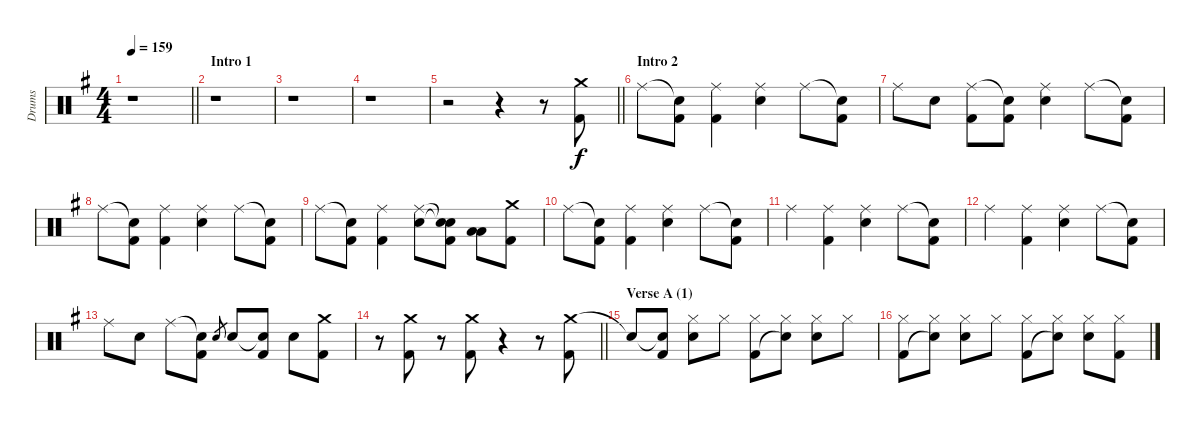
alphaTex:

\track ("Drums" "Drums") {instrument percussion}
\staff {score}
\articulation defaults
\ts (4 4)
\tempo 159
\clef neutral
\barLineRight lightlight
\ks g
r.1{dy f} |
\section ("" "Intro 1")
r.1 |
r.1 |
r.1 |
\barLineRight lightlight
r.2 r.4 r.8 ("Crash medium (hit)" "Kick (hit) 2").8 |
\section ("" "Intro 2")
"Ride (middle)".8 ("Snare (hit)"{t} "Kick (hit) 2").8 ("Ride (middle)" "Kick (hit) 2").4 ("Ride (middle)" "Electric Snare (hit)").4 "Ride (middle)".8 ("Snare (hit)"{t} "Kick (hit) 2").8 |
"Ride (middle)".8 "Electric Snare (hit)".8 ("Ride (middle)" "Kick (hit) 2").8 ("Snare (hit)"{t} "Kick (hit) 2").8 ("Ride (middle)" "Electric Snare (hit)").4 "Ride (middle)".8 ("Snare (hit)"{t} "Kick (hit) 2").8 |
"Ride (middle)".8 ("Snare (hit)"{t} "Kick (hit) 2").8 ("Ride (middle)" "Kick (hit) 2").4 ("Ride (middle)" "Electric Snare (hit)").4 "Ride (middle)".8 ("Snare (hit)"{t} "Kick (hit) 2").8 |
"Ride (middle)".8 ("Snare (hit)"{t} "Kick (hit) 2").8 ("Ride (middle)" "Kick (hit) 2").4 ("Ride (middle)" "Electric Snare (hit)").8 ("Snare (hit)"{t} "Snare (hit)"{t} "Kick (hit) 2").8 ("Low Tom (hit)" "Low Floor Tom (hit)").8 ("Crash medium (hit)" "Kick (hit) 2").8 |
"Ride (middle)".8 ("Snare (hit)"{t} "Kick (hit) 2").8 ("Ride (middle)" "Kick (hit) 2").4 ("Ride (middle)" "Electric Snare (hit)").4 "Ride (middle)".8 ("Snare (hit)"{t} "Kick (hit) 2").8 |
"Ride (middle)".4 ("Ride (middle)" "Kick (hit) 2").4 ("Ride (middle)" "Electric Snare (hit)").4 "Ride (middle)".8 ("Snare (hit)"{t} "Kick (hit) 2").8 |
"Ride (middle)".4 ("Ride (middle)" "Kick (hit) 2").4 ("Ride (middle)" "Electric Snare (hit)").4 "Ride (middle)".8 ("Snare (hit)"{t} "Kick (hit) 2").8 |
"Ride (middle)".8 "Electric Snare (hit)".8 "Ride (middle)".8 ("Snare (hit)"{t} "Kick (hit) 2").8 "Electric Snare (hit)".8{gr} "Electric Snare (hit)".8 ("Snare (hit)"{t} "Kick (hit) 2").8 "Electric Snare (hit)".8 ("Crash medium (hit)" "Kick (hit) 2").8 |
\barLineRight lightlight
r.8 ("Crash medium (hit)" "Kick (hit) 2").8 r.8 ("Crash medium (hit)" "Kick (hit) 2").8 r.4 r.8 ("Crash medium (hit)" "Kick (hit) 2").8 |
\section ("" "Verse A (1)")
"Snare (hit)"{t}.8 ("Snare (hit)"{t} "Kick (hit) 2").8 ("Hi-Hat (closed)" "Electric Snare (hit)").8 "Hi-Hat (closed)".8 ("Hi-Hat (closed)" "Kick (hit) 2").8 ("Hi-Hat (closed)" "Snare (hit)"{t}).8 ("Hi-Hat (closed)" "Electric Snare (hit)").8 "Hi-Hat (closed)".8 |
("Hi-Hat (closed)" "Kick (hit) 2").8 ("Hi-Hat (closed)" "Snare (hit)"{t}).8 ("Hi-Hat (closed)" "Electric Snare (hit)").8 "Hi-Hat (closed)".8 ("Hi-Hat (closed)" "Kick (hit) 2").8 ("Hi-Hat (closed)" "Snare (hit)"{t}).8 ("Hi-Hat (closed)" "Electric Snare (hit)").8 ("Hi-Hat (closed)" "Kick (hit) 2").8
